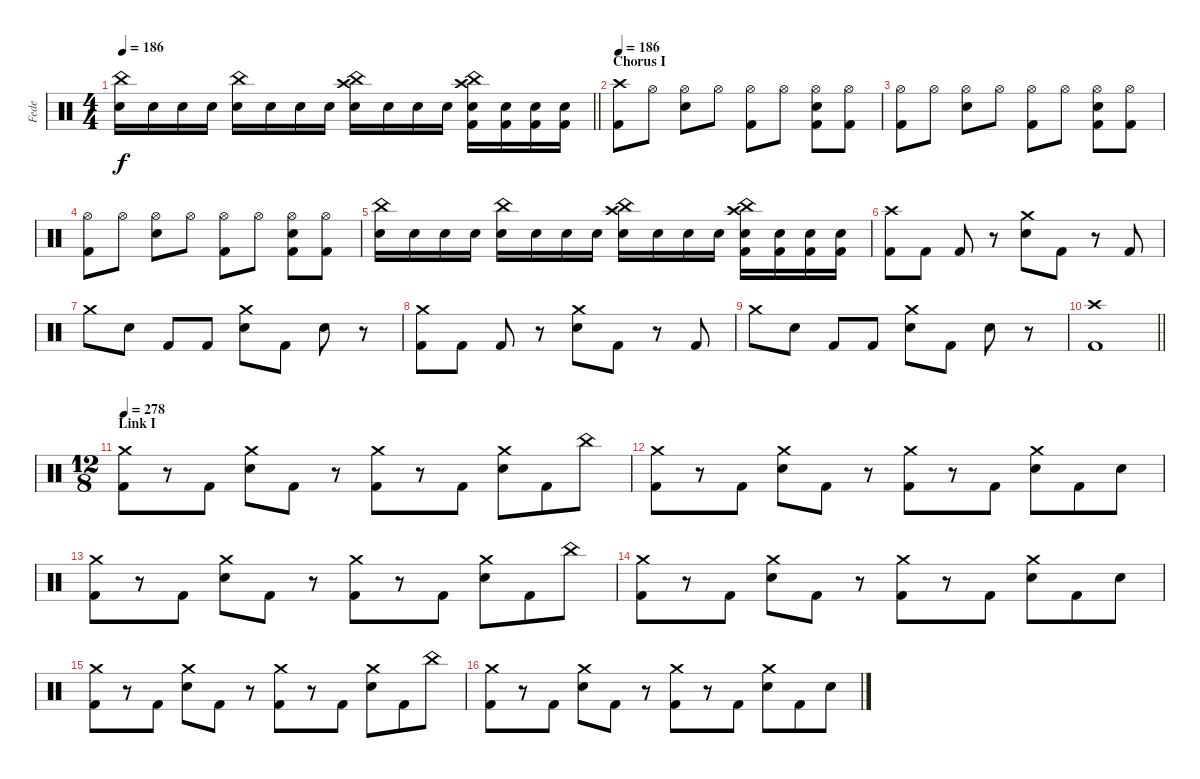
\track ("Fede" "Fede") {instrument percussion}
\staff {score}
\articulation defaults
\ts (4 4)
\tempo 186
\clef neutral
\barLineRight lightlight
\ks c
("China (hit)" "Snare (hit) 2").16{dy f} "Electric Snare (hit)".16 "Electric Snare (hit)".16 "Electric Snare (hit)".16 ("China (hit)" "Snare (hit) 2").16 "Electric Snare (hit)".16 "Electric Snare (hit)".16 "Electric Snare (hit)".16 ("China (hit)" "Snare (hit) 2" "Crash high (hit)").16 "Electric Snare (hit)".16 "Electric Snare (hit)".16 "Electric Snare (hit)".16 ("China (hit)" "Snare (hit) 2" "Crash high (hit)" "Kick (hit) 2").16 ("Electric Snare (hit)" "Kick (hit) 2").16 ("Electric Snare (hit)" "Kick (hit) 2").16 ("Electric Snare (hit)" "Kick (hit) 2").16 |
\section ("" "Chorus I")
\tempo 186
("Crash high (hit)" "Kick (hit) 2").8 "Hi-Hat (open)".8 ("Hi-Hat (open)" "Snare (hit) 2").8 "Hi-Hat (open)".8 ("Hi-Hat (open)" "Kick (hit) 2").8 "Hi-Hat (open)".8 ("Hi-Hat (open)" "Snare (hit) 2" "Kick (hit) 2").8 ("Hi-Hat (open)" "Kick (hit) 2").8 |
("Hi-Hat (open)" "Kick (hit) 2").8 "Hi-Hat (open)".8 ("Hi-Hat (open)" "Snare (hit) 2").8 "Hi-Hat (open)".8 ("Hi-Hat (open)" "Kick (hit) 2").8 "Hi-Hat (open)".8 ("Hi-Hat (open)" "Snare (hit) 2" "Kick (hit) 2").8 ("Hi-Hat (open)" "Kick (hit) 2").8 |
("Hi-Hat (open)" "Kick (hit) 2").8 "Hi-Hat (open)".8 ("Hi-Hat (open)" "Snare (hit) 2").8 "Hi-Hat (open)".8 ("Hi-Hat (open)" "Kick (hit) 2").8 "Hi-Hat (open)".8 ("Hi-Hat (open)" "Snare (hit) 2" "Kick (hit) 2").8 ("Hi-Hat (open)" "Kick (hit) 2").8 |
("China (hit)" "Snare (hit) 2").16 "Electric Snare (hit)".16 "Electric Snare (hit)".16 "Electric Snare (hit)".16 ("China (hit)" "Snare (hit) 2").16 "Electric Snare (hit)".16 "Electric Snare (hit)".16 "Electric Snare (hit)".16 ("China (hit)" "Snare (hit) 2" "Crash high (hit)").16 "Electric Snare (hit)".16 "Electric Snare (hit)".16 "Electric Snare (hit)".16 ("China (hit)" "Snare (hit) 2" "Crash high (hit)" "Kick (hit) 2").16 ("Electric Snare (hit)" "Kick (hit) 2").16 ("Electric Snare (hit)" "Kick (hit) 2").16 ("Electric Snare (hit)" "Kick (hit) 2").16 |
("Crash high (hit)" "Kick (hit) 2").8 "Kick (hit) 2".8 "Kick (hit) 2".8 r.8 ("Crash medium (hit)" "Snare (hit) 2").8 "Kick (hit) 2".8 r.8 "Kick (hit) 2".8 |
"Crash medium (hit)".8 "Snare (hit) 2".8 "Kick (hit) 2".8 "Kick (hit) 2".8 ("Crash medium (hit)" "Snare (hit) 2").8 "Kick (hit) 2".8 "Snare (hit) 2".8 r.8 |
("Crash medium (hit)" "Kick (hit) 2").8 "Kick (hit) 2".8 "Kick (hit) 2".8 r.8 ("Crash medium (hit)" "Snare (hit) 2").8 "Kick (hit) 2".8 r.8 "Kick (hit) 2".8 |
"Crash medium (hit)".8 "Snare (hit) 2".8 "Kick (hit) 2".8 "Kick (hit) 2".8 ("Crash medium (hit)" "Snare (hit) 2").8 "Kick (hit) 2".8 "Snare (hit) 2".8 r.8 |
\barLineRight lightlight
("Crash high (hit)" "Kick (hit) 2").1 |
\ts (12 8)
\section ("" "Link I")
\tempo 278
("Crash medium (hit)" "Kick (hit) 2").8 r.8 "Kick (hit) 2".8 ("Crash medium (hit)" "Snare (hit) 2").8 "Kick (hit) 2".8 r.8 ("Crash medium (hit)" "Kick (hit) 2").8 r.8 "Kick (hit) 2".8 ("Crash medium (hit)" "Snare (hit) 2").8 "Kick (hit) 2".8 "China (hit)".8 |
("Crash medium (hit)" "Kick (hit) 2").8 r.8 "Kick (hit) 2".8 ("Crash medium (hit)" "Snare (hit) 2").8 "Kick (hit) 2".8 r.8 ("Crash medium (hit)" "Kick (hit) 2").8 r.8 "Kick (hit) 2".8 ("Crash medium (hit)" "Snare (hit) 2").8 "Kick (hit) 2".8 "Snare (hit) 2".8 |
("Crash medium (hit)" "Kick (hit) 2").8 r.8 "Kick (hit) 2".8 ("Crash medium (hit)" "Snare (hit) 2").8 "Kick (hit) 2".8 r.8 ("Crash medium (hit)" "Kick (hit) 2").8 r.8 "Kick (hit) 2".8 ("Crash medium (hit)" "Snare (hit) 2").8 "Kick (hit) 2".8 "China (hit)".8 |
("Crash medium (hit)" "Kick (hit) 2").8 r.8 "Kick (hit) 2".8 ("Crash medium (hit)" "Snare (hit) 2").8 "Kick (hit) 2".8 r.8 ("Crash medium (hit)" "Kick (hit) 2").8 r.8 "Kick (hit) 2".8 ("Crash medium (hit)" "Snare (hit) 2").8 "Kick (hit) 2".8 "Snare (hit) 2".8 |
("Crash medium (hit)" "Kick (hit) 2").8 r.8 "Kick (hit) 2".8 ("Crash medium (hit)" "Snare (hit) 2").8 "Kick (hit) 2".8 r.8 ("Crash medium (hit)" "Kick (hit) 2").8 r.8 "Kick (hit) 2".8 ("Crash medium (hit)" "Snare (hit) 2").8 "Kick (hit) 2".8 "China (hit)".8 |
("Crash medium (hit)" "Kick (hit) 2").8 r.8 "Kick (hit) 2".8 ("Crash medium (hit)" "Snare (hit) 2").8 "Kick (hit) 2".8 r.8 ("Crash medium (hit)" "Kick (hit) 2").8 r.8 "Kick (hit) 2".8 ("Crash medium (hit)" "Snare (hit) 2").8 "Kick (hit) 2".8 "Snare (hit) 2".8
